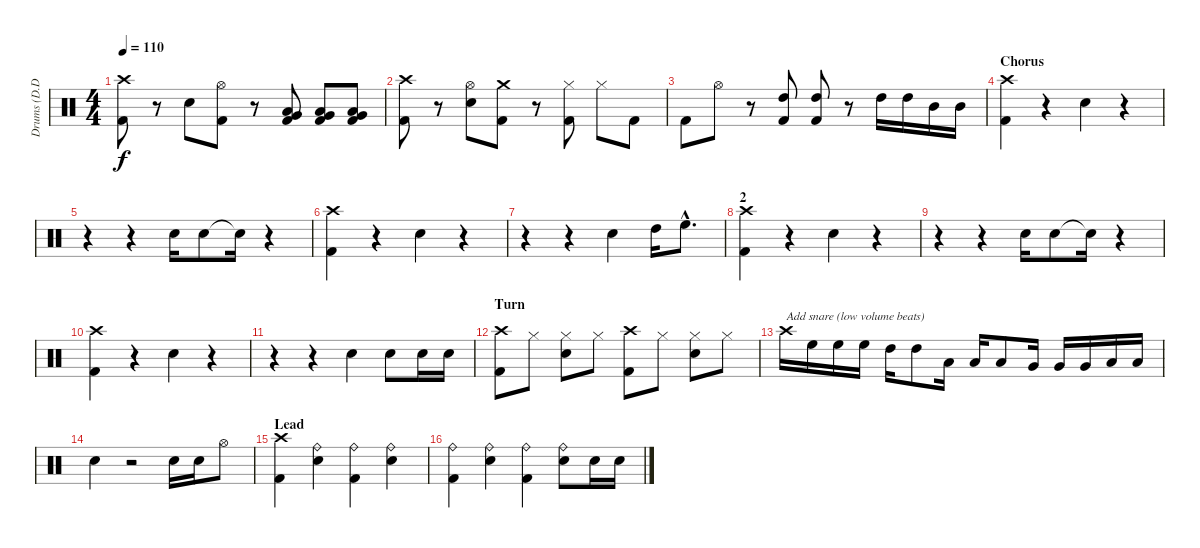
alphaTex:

\track ("Drums (D.D. Bucco)" "Drums (D.D") {instrument percussion}
\staff {score}
\articulation defaults
\ts (4 4)
\tempo 110
\clef neutral
\ks c
("Crash high (hit)" "Kick (hit) 2").8{dy f} r.8 "Snare (hit) 2".8 ("Hi-Hat (open)" "Kick (hit) 2").8 r.8 ("Very Low Tom (hit)" "Low Floor Tom (hit)" "Kick (hit) 2").8 ("Very Low Tom (hit)" "Low Floor Tom (hit)" "Kick (hit) 2").8 ("Very Low Tom (hit)" "Low Floor Tom (hit)" "Kick (hit) 2").8 |
("Crash high (hit)" "Kick (hit) 2").8 r.8 ("Hi-Hat (open)" "Snare (hit) 2").8 ("Crash medium (hit)" "Kick (hit) 2").8 r.8 ("Hi-Hat (closed)" "Kick (hit) 2").8 "Hi-Hat (closed)".8 "Kick (hit) 2".8 |
"Kick (hit) 2".8 "Hi-Hat (open)".8 r.8 ("High Tom (hit)" "Kick (hit) 2").8 ("High Tom (hit)" "Kick (hit) 2").8 r.8 "High Tom (hit)".16 "High Tom (hit)".16 "Mid Tom (hit)".16 "Mid Tom (hit)".16 |
\section ("" "Chorus")
("Crash high (hit)" "Kick (hit) 2").4 r.4 "Snare (hit) 2".4 r.4 |
r.4 r.4 "Snare (hit) 2".16 "Snare (hit) 2".8 "Snare (hit)"{t}.16 r.4 |
("Crash high (hit)" "Kick (hit) 2").4 r.4 "Snare (hit) 2".4 r.4 |
r.4 r.4 "Snare (hit) 2".4 "High Tom (hit)".16 "High Floor Tom (hit)"{hac}.8{d} |
\section ("" "2")
("Crash high (hit)" "Kick (hit) 2").4 r.4 "Snare (hit) 2".4 r.4 |
r.4 r.4 "Snare (hit) 2".16 "Snare (hit) 2".8 "Snare (hit)"{t}.16 r.4 |
("Crash high (hit)" "Kick (hit) 2").4 r.4 "Snare (hit) 2".4 r.4 |
r.4 r.4 "Snare (hit) 2".4 "Snare (hit) 2".8 "Snare (hit) 2".16 "Snare (hit) 2".16 |
\section ("" "Turn")
("Crash high (hit)" "Kick (hit) 2").8 "Hi-Hat (closed)".8 ("Hi-Hat (closed)" "Snare (hit) 2").8 "Hi-Hat (closed)".8 ("Crash high (hit)" "Kick (hit) 2").8 "Hi-Hat (closed)".8 ("Hi-Hat (closed)" "Snare (hit) 2").8 "Hi-Hat (closed)".8 |
"Crash high (hit)".16{txt "Add snare (low volume beats)" volume 10} "High Floor Tom (hit)".16 "High Floor Tom (hit)".16 "High Floor Tom (hit)".16 "High Tom (hit)".16 "High Tom (hit)".8 "Low Tom (hit)".16 "Low Tom (hit)".16 "Low Tom (hit)".8 "Very Low Tom (hit)".16 "Very Low Tom (hit)".16 "Very Low Tom (hit)".16 "Low Floor Tom (hit)".16 "Low Floor Tom (hit)".16 |
\section ("" "")
"Snare (hit) 2".4 r.2 "Snare (hit) 2".16{volume 16} "Snare (hit) 2".16 "Hi-Hat (open)".8 |
\section ("" "Lead ")
("Crash high (hit)" "Kick (hit) 2").4 ("Ride (bell)" "Snare (hit) 2").4 ("Ride (bell)" "Kick (hit) 2").4 ("Ride (bell)" "Snare (hit) 2").4 |
("Ride (bell)" "Kick (hit) 2").4 ("Ride (bell)" "Snare (hit) 2").4 ("Ride (bell)" "Kick (hit) 2").4 ("Ride (bell)" "Snare (hit) 2").8 "Snare (hit) 2".16 "Snare (hit) 2".16
